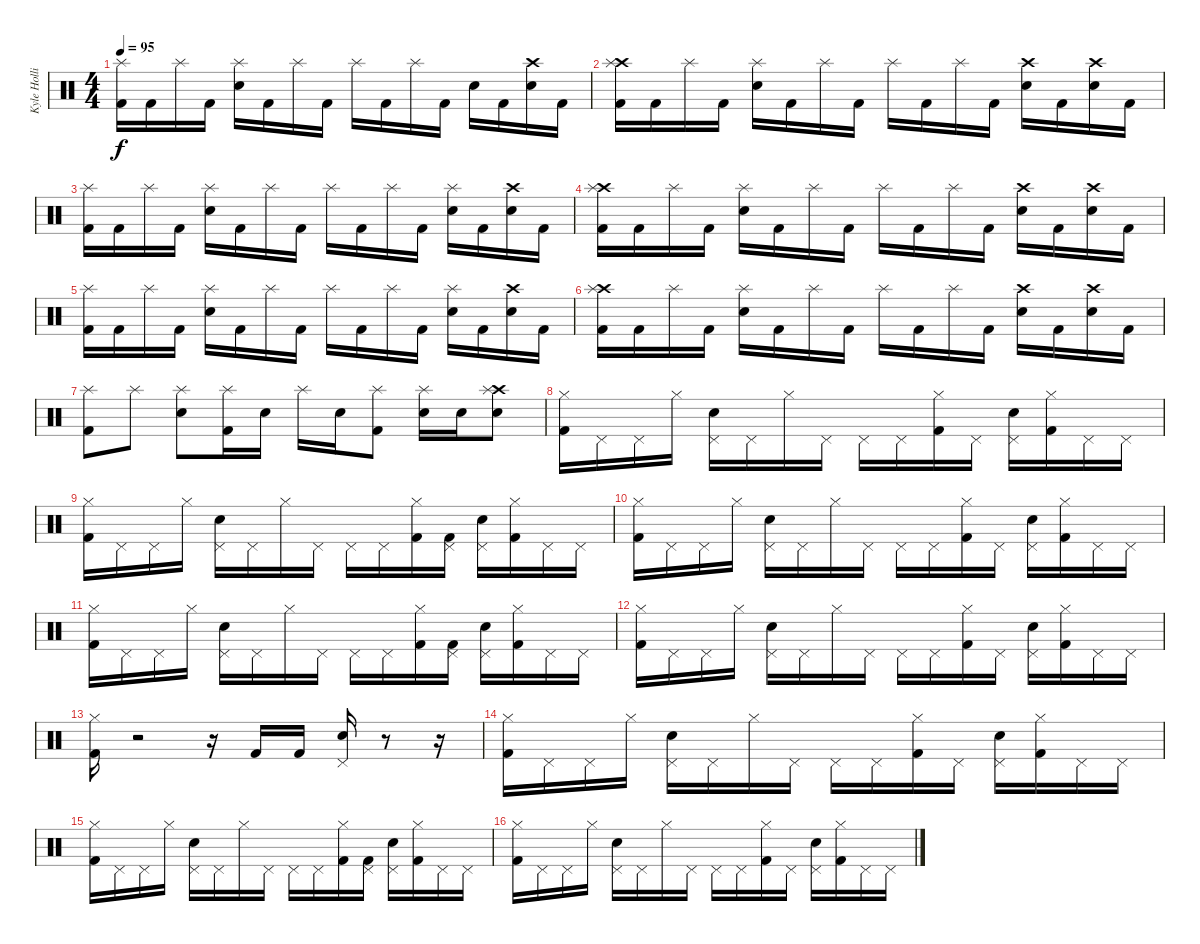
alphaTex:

\track ("Kyle Hollinger - Drums" "Kyle Holli") {instrument percussion}
\staff {score}
\articulation defaults
\ts (4 4)
\tempo 95
\clef neutral
\ks c
("Splash (hit)" "Kick (hit) 2").16{dy f} "Kick (hit) 2".16 "Splash (hit)".16 "Kick (hit) 2".16 ("Electric Snare (hit)" "Splash (hit)").16 "Kick (hit) 2".16 "Splash (hit)".16 "Kick (hit) 2".16 "Splash (hit)".16 "Kick (hit) 2".16 "Splash (hit)".16 "Kick (hit) 2".16 "Electric Snare (hit)".16 "Kick (hit) 2".16 ("Crash high (hit)" "Electric Snare (hit)").16 "Kick (hit) 2".16 |
("Crash high (hit)" "Splash (hit)" "Kick (hit) 2").16 "Kick (hit) 2".16 "Splash (hit)".16 "Kick (hit) 2".16 ("Electric Snare (hit)" "Splash (hit)").16 "Kick (hit) 2".16 "Splash (hit)".16 "Kick (hit) 2".16 "Splash (hit)".16 "Kick (hit) 2".16 "Splash (hit)".16 "Kick (hit) 2".16 ("Crash high (hit)" "Electric Snare (hit)").16 "Kick (hit) 2".16 ("Crash high (hit)" "Electric Snare (hit)").16 "Kick (hit) 2".16 |
("Splash (hit)" "Kick (hit) 2").16 "Kick (hit) 2".16 "Splash (hit)".16 "Kick (hit) 2".16 ("Electric Snare (hit)" "Splash (hit)").16 "Kick (hit) 2".16 "Splash (hit)".16 "Kick (hit) 2".16 "Splash (hit)".16 "Kick (hit) 2".16 "Splash (hit)".16 "Kick (hit) 2".16 ("Electric Snare (hit)" "Splash (hit)").16 "Kick (hit) 2".16 ("Crash high (hit)" "Electric Snare (hit)").16 "Kick (hit) 2".16 |
("Crash high (hit)" "Splash (hit)" "Kick (hit) 2").16 "Kick (hit) 2".16 "Splash (hit)".16 "Kick (hit) 2".16 ("Electric Snare (hit)" "Splash (hit)").16 "Kick (hit) 2".16 "Splash (hit)".16 "Kick (hit) 2".16 "Splash (hit)".16 "Kick (hit) 2".16 "Splash (hit)".16 "Kick (hit) 2".16 ("Crash high (hit)" "Electric Snare (hit)").16 "Kick (hit) 2".16 ("Crash high (hit)" "Electric Snare (hit)").16 "Kick (hit) 2".16 |
("Splash (hit)" "Kick (hit) 2").16 "Kick (hit) 2".16 "Splash (hit)".16 "Kick (hit) 2".16 ("Electric Snare (hit)" "Splash (hit)").16 "Kick (hit) 2".16 "Splash (hit)".16 "Kick (hit) 2".16 "Splash (hit)".16 "Kick (hit) 2".16 "Splash (hit)".16 "Kick (hit) 2".16 ("Electric Snare (hit)" "Splash (hit)").16 "Kick (hit) 2".16 ("Crash high (hit)" "Electric Snare (hit)").16 "Kick (hit) 2".16 |
("Crash high (hit)" "Splash (hit)" "Kick (hit) 2").16 "Kick (hit) 2".16 "Splash (hit)".16 "Kick (hit) 2".16 ("Electric Snare (hit)" "Splash (hit)").16 "Kick (hit) 2".16 "Splash (hit)".16 "Kick (hit) 2".16 "Splash (hit)".16 "Kick (hit) 2".16 "Splash (hit)".16 "Kick (hit) 2".16 ("Crash high (hit)" "Electric Snare (hit)").16 "Kick (hit) 2".16 ("Crash high (hit)" "Electric Snare (hit)").16 "Kick (hit) 2".16 |
("Splash (hit)" "Kick (hit) 2").8 "Splash (hit)".8 ("Electric Snare (hit)" "Splash (hit)").8 ("Splash (hit)" "Kick (hit) 2").16 "Electric Snare (hit)".16 "Splash (hit)".16 "Electric Snare (hit)".16 ("Splash (hit)" "Kick (hit) 2").8 ("Electric Snare (hit)" "Splash (hit)").16 "Electric Snare (hit)".16 ("Crash high (hit)" "Electric Snare (hit)" "Splash (hit)").8 |
("Hi-Hat (closed)" "Kick (hit) 2").16 "Pedal Hi-Hat (hit)".16{volume 5} "Pedal Hi-Hat (hit)".16 "Hi-Hat (closed)".16{volume 16} ("Pedal Hi-Hat (hit)" "Electric Snare (hit)").16 "Pedal Hi-Hat (hit)".16{volume 5} "Hi-Hat (closed)".16{volume 16} "Pedal Hi-Hat (hit)".16{volume 5} "Pedal Hi-Hat (hit)".16 "Pedal Hi-Hat (hit)".16{volume 5} ("Hi-Hat (closed)" "Kick (hit) 2").16{volume 16} "Pedal Hi-Hat (hit)".16{volume 5} ("Pedal Hi-Hat (hit)" "Electric Snare (hit)").16{volume 16} ("Hi-Hat (closed)" "Kick (hit) 2").16 "Pedal Hi-Hat (hit)".16{volume 5} "Pedal Hi-Hat (hit)".16 |
("Hi-Hat (closed)" "Kick (hit) 2").16{volume 16} "Pedal Hi-Hat (hit)".16{volume 5} "Pedal Hi-Hat (hit)".16 "Hi-Hat (closed)".16{volume 16} ("Pedal Hi-Hat (hit)" "Electric Snare (hit)").16 "Pedal Hi-Hat (hit)".16{volume 5} "Hi-Hat (closed)".16{volume 16} "Pedal Hi-Hat (hit)".16{volume 5} "Pedal Hi-Hat (hit)".16 "Pedal Hi-Hat (hit)".16{volume 5} ("Hi-Hat (closed)" "Kick (hit) 2").16{volume 16} ("Pedal Hi-Hat (hit)" "Kick (hit) 2").16{volume 16} ("Pedal Hi-Hat (hit)" "Electric Snare (hit)").16{volume 16} ("Hi-Hat (closed)" "Kick (hit) 2").16 "Pedal Hi-Hat (hit)".16{volume 5} "Pedal Hi-Hat (hit)".16 |
("Hi-Hat (closed)" "Kick (hit) 2").16{volume 16} "Pedal Hi-Hat (hit)".16{volume 5} "Pedal Hi-Hat (hit)".16 "Hi-Hat (closed)".16{volume 16} ("Pedal Hi-Hat (hit)" "Electric Snare (hit)").16 "Pedal Hi-Hat (hit)".16{volume 5} "Hi-Hat (closed)".16{volume 16} "Pedal Hi-Hat (hit)".16{volume 5} "Pedal Hi-Hat (hit)".16 "Pedal Hi-Hat (hit)".16{volume 5} ("Hi-Hat (closed)" "Kick (hit) 2").16{volume 16} "Pedal Hi-Hat (hit)".16{volume 5} ("Pedal Hi-Hat (hit)" "Electric Snare (hit)").16{volume 16} ("Hi-Hat (closed)" "Kick (hit) 2").16 "Pedal Hi-Hat (hit)".16{volume 5} "Pedal Hi-Hat (hit)".16 |
("Hi-Hat (closed)" "Kick (hit) 2").16{volume 16} "Pedal Hi-Hat (hit)".16{volume 5} "Pedal Hi-Hat (hit)".16 "Hi-Hat (closed)".16{volume 16} ("Pedal Hi-Hat (hit)" "Electric Snare (hit)").16 "Pedal Hi-Hat (hit)".16{volume 5} "Hi-Hat (closed)".16{volume 16} "Pedal Hi-Hat (hit)".16{volume 5} "Pedal Hi-Hat (hit)".16 "Pedal Hi-Hat (hit)".16{volume 5} ("Hi-Hat (closed)" "Kick (hit) 2").16{volume 16} ("Pedal Hi-Hat (hit)" "Kick (hit) 2").16{volume 16} ("Pedal Hi-Hat (hit)" "Electric Snare (hit)").16{volume 16} ("Hi-Hat (closed)" "Kick (hit) 2").16 "Pedal Hi-Hat (hit)".16{volume 5} "Pedal Hi-Hat (hit)".16 |
("Hi-Hat (closed)" "Kick (hit) 2").16{volume 16} "Pedal Hi-Hat (hit)".16{volume 5} "Pedal Hi-Hat (hit)".16 "Hi-Hat (closed)".16{volume 16} ("Pedal Hi-Hat (hit)" "Electric Snare (hit)").16 "Pedal Hi-Hat (hit)".16{volume 5} "Hi-Hat (closed)".16{volume 16} "Pedal Hi-Hat (hit)".16{volume 5} "Pedal Hi-Hat (hit)".16 "Pedal Hi-Hat (hit)".16{volume 5} ("Hi-Hat (closed)" "Kick (hit) 2").16{volume 16} "Pedal Hi-Hat (hit)".16{volume 5} ("Pedal Hi-Hat (hit)" "Electric Snare (hit)").16{volume 16} ("Hi-Hat (closed)" "Kick (hit) 2").16 "Pedal Hi-Hat (hit)".16{volume 5} "Pedal Hi-Hat (hit)".16 |
("Hi-Hat (closed)" "Kick (hit) 2").16{volume 16} r.2{volume 5} r.16 "Kick (hit) 2".16{volume 16} "Kick (hit) 2".16{volume 16} ("Pedal Hi-Hat (hit)" "Electric Snare (hit)").16{volume 16} r.8 r.16{volume 5} |
("Hi-Hat (closed)" "Kick (hit) 2").16{volume 16} "Pedal Hi-Hat (hit)".16{volume 5} "Pedal Hi-Hat (hit)".16 "Hi-Hat (closed)".16{volume 16} ("Pedal Hi-Hat (hit)" "Electric Snare (hit)").16 "Pedal Hi-Hat (hit)".16{volume 5} "Hi-Hat (closed)".16{volume 16} "Pedal Hi-Hat (hit)".16{volume 5} "Pedal Hi-Hat (hit)".16 "Pedal Hi-Hat (hit)".16{volume 5} ("Hi-Hat (closed)" "Kick (hit) 2").16{volume 16} "Pedal Hi-Hat (hit)".16{volume 5} ("Pedal Hi-Hat (hit)" "Electric Snare (hit)").16{volume 16} ("Hi-Hat (closed)" "Kick (hit) 2").16 "Pedal Hi-Hat (hit)".16{volume 5} "Pedal Hi-Hat (hit)".16 |
("Hi-Hat (closed)" "Kick (hit) 2").16{volume 16} "Pedal Hi-Hat (hit)".16{volume 5} "Pedal Hi-Hat (hit)".16 "Hi-Hat (closed)".16{volume 16} ("Pedal Hi-Hat (hit)" "Electric Snare (hit)").16 "Pedal Hi-Hat (hit)".16{volume 5} "Hi-Hat (closed)".16{volume 16} "Pedal Hi-Hat (hit)".16{volume 5} "Pedal Hi-Hat (hit)".16 "Pedal Hi-Hat (hit)".16{volume 5} ("Hi-Hat (closed)" "Kick (hit) 2").16{volume 16} ("Pedal Hi-Hat (hit)" "Kick (hit) 2").16{volume 16} ("Pedal Hi-Hat (hit)" "Electric Snare (hit)").16{volume 16} ("Hi-Hat (closed)" "Kick (hit) 2").16 "Pedal Hi-Hat (hit)".16{volume 5} "Pedal Hi-Hat (hit)".16 |
("Hi-Hat (closed)" "Kick (hit) 2").16{volume 16} "Pedal Hi-Hat (hit)".16{volume 5} "Pedal Hi-Hat (hit)".16 "Hi-Hat (closed)".16{volume 16} ("Pedal Hi-Hat (hit)" "Electric Snare (hit)").16 "Pedal Hi-Hat (hit)".16{volume 5} "Hi-Hat (closed)".16{volume 16} "Pedal Hi-Hat (hit)".16{volume 5} "Pedal Hi-Hat (hit)".16 "Pedal Hi-Hat (hit)".16{volume 5} ("Hi-Hat (closed)" "Kick (hit) 2").16{volume 16} "Pedal Hi-Hat (hit)".16{volume 5} ("Pedal Hi-Hat (hit)" "Electric Snare (hit)").16{volume 16} ("Hi-Hat (closed)" "Kick (hit) 2").16 "Pedal Hi-Hat (hit)".16{volume 5} "Pedal Hi-Hat (hit)".16
